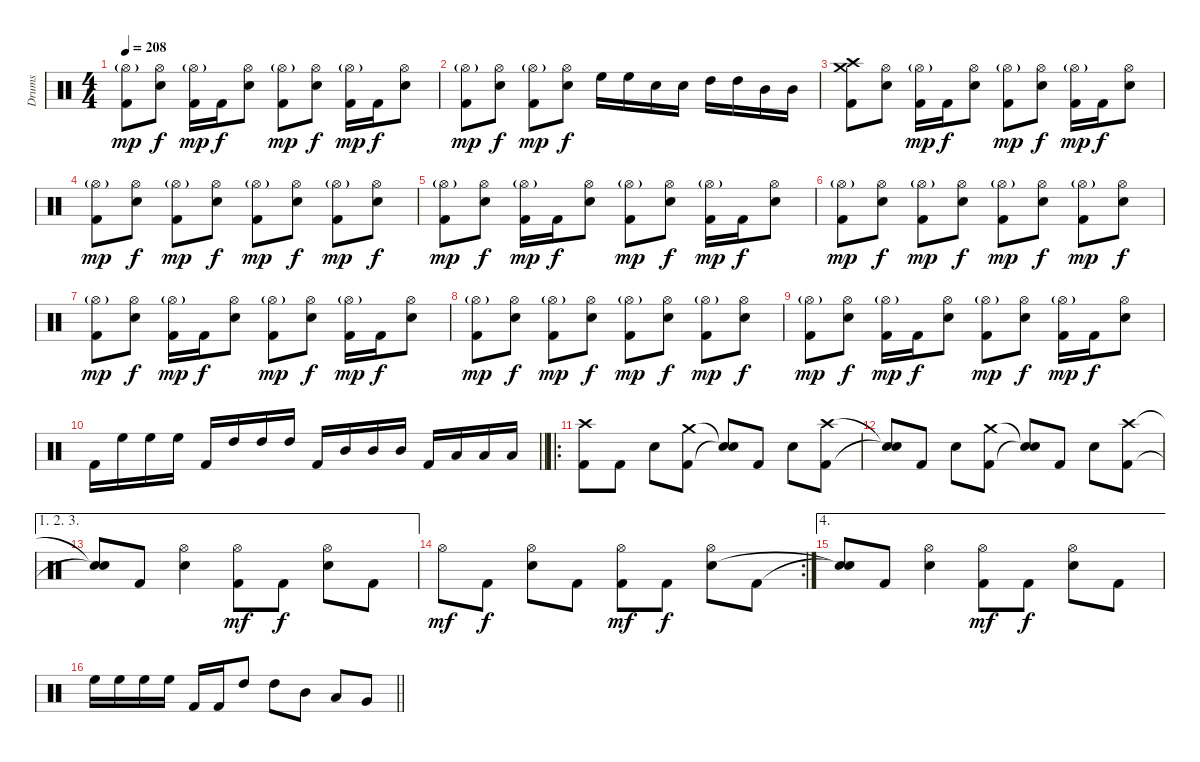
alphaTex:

\track ("Drums" "Drums") {instrument percussion}
\staff {score}
\articulation defaults
\ts (4 4)
\tempo 208
\clef neutral
\ks c
("Hi-Hat (open)"{g} "Kick (hit) 2").8{dy mp} ("Hi-Hat (open)" "Electric Snare (hit)").8{dy f} ("Hi-Hat (open)"{g} "Kick (hit) 2").16{dy mp} "Kick (hit) 2".16{dy f} ("Hi-Hat (open)" "Electric Snare (hit)").8 ("Hi-Hat (open)"{g} "Kick (hit) 2").8{dy mp} ("Hi-Hat (open)" "Electric Snare (hit)").8{dy f} ("Hi-Hat (open)"{g} "Kick (hit) 2").16{dy mp} "Kick (hit) 2".16{dy f} ("Hi-Hat (open)" "Electric Snare (hit)").8 |
("Hi-Hat (open)"{g} "Kick (hit) 2").8{dy mp} ("Hi-Hat (open)" "Electric Snare (hit)").8{dy f} ("Hi-Hat (open)"{g} "Kick (hit) 2").8{dy mp} ("Hi-Hat (open)" "Electric Snare (hit)").8{dy f} "High Floor Tom (hit)".16 "High Floor Tom (hit)".16 "Electric Snare (hit)".16 "Electric Snare (hit)".16 "High Tom (hit)".16 "High Tom (hit)".16 "Mid Tom (hit)".16 "Mid Tom (hit)".16 |
("Crash high (hit)" "Crash medium (hit)" "Kick (hit) 2").8 ("Hi-Hat (open)" "Electric Snare (hit)").8 ("Hi-Hat (open)"{g} "Kick (hit) 2").16{dy mp} "Kick (hit) 2".16{dy f} ("Hi-Hat (open)" "Electric Snare (hit)").8 ("Hi-Hat (open)"{g} "Kick (hit) 2").8{dy mp} ("Hi-Hat (open)" "Electric Snare (hit)").8{dy f} ("Hi-Hat (open)"{g} "Kick (hit) 2").16{dy mp} "Kick (hit) 2".16{dy f} ("Hi-Hat (open)" "Electric Snare (hit)").8 |
("Hi-Hat (open)"{g} "Kick (hit) 2").8{dy mp} ("Hi-Hat (open)" "Electric Snare (hit)").8{dy f} ("Hi-Hat (open)"{g} "Kick (hit) 2").8{dy mp} ("Hi-Hat (open)" "Electric Snare (hit)").8{dy f} ("Hi-Hat (open)"{g} "Kick (hit) 2").8{dy mp} ("Hi-Hat (open)" "Electric Snare (hit)").8{dy f} ("Hi-Hat (open)"{g} "Kick (hit) 2").8{dy mp} ("Hi-Hat (open)" "Electric Snare (hit)").8{dy f} |
("Hi-Hat (open)"{g} "Kick (hit) 2").8{dy mp} ("Hi-Hat (open)" "Electric Snare (hit)").8{dy f} ("Hi-Hat (open)"{g} "Kick (hit) 2").16{dy mp} "Kick (hit) 2".16{dy f} ("Hi-Hat (open)" "Electric Snare (hit)").8 ("Hi-Hat (open)"{g} "Kick (hit) 2").8{dy mp} ("Hi-Hat (open)" "Electric Snare (hit)").8{dy f} ("Hi-Hat (open)"{g} "Kick (hit) 2").16{dy mp} "Kick (hit) 2".16{dy f} ("Hi-Hat (open)" "Electric Snare (hit)").8 |
("Hi-Hat (open)"{g} "Kick (hit) 2").8{dy mp} ("Hi-Hat (open)" "Electric Snare (hit)").8{dy f} ("Hi-Hat (open)"{g} "Kick (hit) 2").8{dy mp} ("Hi-Hat (open)" "Electric Snare (hit)").8{dy f} ("Hi-Hat (open)"{g} "Kick (hit) 2").8{dy mp} ("Hi-Hat (open)" "Electric Snare (hit)").8{dy f} ("Hi-Hat (open)"{g} "Kick (hit) 2").8{dy mp} ("Hi-Hat (open)" "Electric Snare (hit)").8{dy f} |
("Hi-Hat (open)"{g} "Kick (hit) 2").8{dy mp} ("Hi-Hat (open)" "Electric Snare (hit)").8{dy f} ("Hi-Hat (open)"{g} "Kick (hit) 2").16{dy mp} "Kick (hit) 2".16{dy f} ("Hi-Hat (open)" "Electric Snare (hit)").8 ("Hi-Hat (open)"{g} "Kick (hit) 2").8{dy mp} ("Hi-Hat (open)" "Electric Snare (hit)").8{dy f} ("Hi-Hat (open)"{g} "Kick (hit) 2").16{dy mp} "Kick (hit) 2".16{dy f} ("Hi-Hat (open)" "Electric Snare (hit)").8 |
("Hi-Hat (open)"{g} "Kick (hit) 2").8{dy mp} ("Hi-Hat (open)" "Electric Snare (hit)").8{dy f} ("Hi-Hat (open)"{g} "Kick (hit) 2").8{dy mp} ("Hi-Hat (open)" "Electric Snare (hit)").8{dy f} ("Hi-Hat (open)"{g} "Kick (hit) 2").8{dy mp} ("Hi-Hat (open)" "Electric Snare (hit)").8{dy f} ("Hi-Hat (open)"{g} "Kick (hit) 2").8{dy mp} ("Hi-Hat (open)" "Electric Snare (hit)").8{dy f} |
("Hi-Hat (open)"{g} "Kick (hit) 2").8{dy mp} ("Hi-Hat (open)" "Electric Snare (hit)").8{dy f} ("Hi-Hat (open)"{g} "Kick (hit) 2").16{dy mp} "Kick (hit) 2".16{dy f} ("Hi-Hat (open)" "Electric Snare (hit)").8 ("Hi-Hat (open)"{g} "Kick (hit) 2").8{dy mp} ("Hi-Hat (open)" "Electric Snare (hit)").8{dy f} ("Hi-Hat (open)"{g} "Kick (hit) 2").16{dy mp} "Kick (hit) 2".16{dy f} ("Hi-Hat (open)" "Electric Snare (hit)").8 |
\barLineRight lightlight "Kick (hit) 2".16 "High Floor Tom (hit)".16 "High Floor Tom (hit)".16 "High Floor Tom (hit)".16 "Kick (hit) 2".16 "High Tom (hit)".16 "High Tom (hit)".16 "High Tom (hit)".16 "Kick (hit) 2".16 "Mid Tom (hit)".16 "Mid Tom (hit)".16 "Mid Tom (hit)".16 "Kick (hit) 2".16 "Low Tom (hit)".16 "Low Tom (hit)".16 "Low Tom (hit)".16
|
\ro
("Crash high (hit)" "Kick (hit) 2").8 "Kick (hit) 2".8 "Electric Snare (hit)".8 ("Crash medium (hit)" "Kick (hit) 2").8 ("Snare (hit)"{t} "Snare (hit)"{t}).8 "Kick (hit) 2".8 "Electric Snare (hit)".8 ("Crash high (hit)" "Kick (hit) 2").8 |
("Snare (hit)"{t} "Snare (hit)"{t}).8 "Kick (hit) 2".8 "Electric Snare (hit)".8 ("Crash medium (hit)" "Kick (hit) 2").8 ("Snare (hit)"{t} "Snare (hit)"{t}).8 "Kick (hit) 2".8 "Electric Snare (hit)".8 ("Crash high (hit)" "Kick (hit) 2").8 |
\ae (1 2 3)
("Snare (hit)"{t} "Snare (hit)"{t}).8 "Kick (hit) 2".8 ("Hi-Hat (open)" "Electric Snare (hit)").4 ("Hi-Hat (open)" "Kick (hit) 2").8{dy mf} "Kick (hit) 2".8{dy f} ("Hi-Hat (open)" "Electric Snare (hit)").8 "Kick (hit) 2".8 |
\rc 2 "Hi-Hat (open)".8{dy mf} "Kick (hit) 2".8{dy f}
("Hi-Hat (open)" "Electric Snare (hit)").8 "Kick (hit) 2".8 ("Hi-Hat (open)" "Kick (hit) 2").8{dy mf} "Kick (hit) 2".8{dy f} ("Hi-Hat (open)" "Electric Snare (hit)").8 "Kick (hit) 2".8 |
\ae 4
("Snare (hit)"{t} "Snare (hit)"{t}).8 "Kick (hit) 2".8 ("Hi-Hat (open)" "Electric Snare (hit)").4 ("Hi-Hat (open)" "Kick (hit) 2").8{dy mf} "Kick (hit) 2".8{dy f} ("Hi-Hat (open)" "Electric Snare (hit)").8 "Kick (hit) 2".8 |
\barLineRight lightlight "High Floor Tom (hit)".16 "High Floor Tom (hit)".16 "High Floor Tom (hit)".16 "High Floor Tom (hit)".16 "Kick (hit) 2".16 "Kick (hit) 2".16 "High Tom (hit)".8 "High Tom (hit)".8 "Mid Tom (hit)".8 "Low Tom (hit)".8 "Very Low Tom (hit)".8
